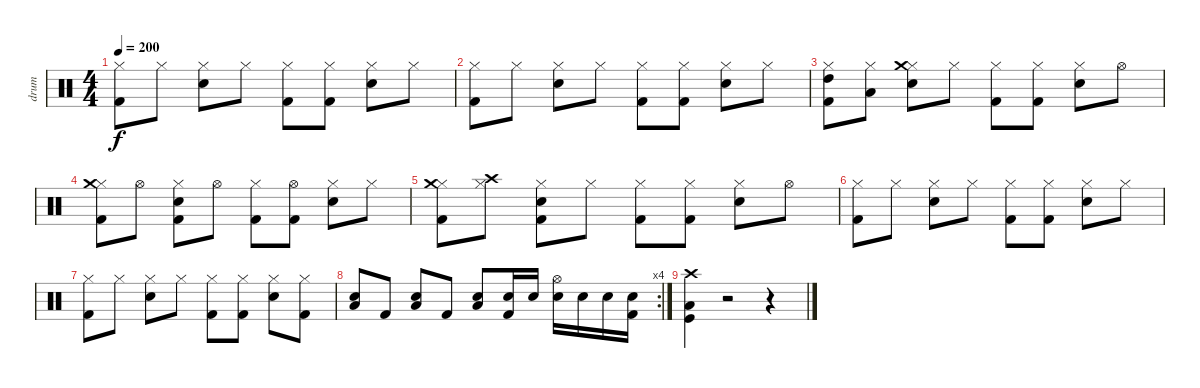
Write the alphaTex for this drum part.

\track ("drum" "drum") {instrument percussion}
\staff {score}
\articulation defaults
\ts (4 4)
\tempo 200
\clef neutral
\ks c
("Hi-Hat (closed)" "Kick (hit) 2").8{dy f} "Hi-Hat (closed)".8 ("Hi-Hat (closed)" "Electric Snare (hit)").8 "Hi-Hat (closed)".8 ("Hi-Hat (closed)" "Kick (hit) 2").8 ("Hi-Hat (closed)" "Kick (hit) 2").8 ("Hi-Hat (closed)" "Electric Snare (hit)").8 "Hi-Hat (closed)".8 |
("Hi-Hat (closed)" "Kick (hit) 2").8 "Hi-Hat (closed)".8 ("Hi-Hat (closed)" "Electric Snare (hit)").8 "Hi-Hat (closed)".8 ("Hi-Hat (closed)" "Kick (hit) 2").8 ("Hi-Hat (closed)" "Kick (hit) 2").8 ("Hi-Hat (closed)" "Electric Snare (hit)").8 "Hi-Hat (closed)".8 |
("Hi-Hat (closed)" "Kick (hit) 2" "High Tom (hit)").8 ("Hi-Hat (closed)" "Low Tom (hit)").8 ("Hi-Hat (closed)" "Electric Snare (hit)" "Crash medium (hit)").8 "Hi-Hat (closed)".8 ("Hi-Hat (closed)" "Kick (hit) 2").8 ("Hi-Hat (closed)" "Kick (hit) 2").8 ("Hi-Hat (closed)" "Electric Snare (hit)").8 "Hi-Hat (open)".8 |
("Hi-Hat (closed)" "Kick (hit) 2" "Crash medium (hit)").8 "Hi-Hat (open)".8 ("Hi-Hat (closed)" "Kick (hit) 2" "Electric Snare (hit)").8 "Hi-Hat (open)".8 ("Hi-Hat (closed)" "Kick (hit) 2").8 ("Hi-Hat (open)" "Kick (hit) 2").8 ("Hi-Hat (closed)" "Electric Snare (hit)").8 "Hi-Hat (closed)".8 |
("Hi-Hat (closed)" "Kick (hit) 2" "Crash medium (hit)").8 ("Hi-Hat (closed)" "Crash high (hit)").8 ("Hi-Hat (closed)" "Kick (hit) 2" "Electric Snare (hit)").8 "Hi-Hat (closed)".8 ("Hi-Hat (closed)" "Kick (hit) 2").8 ("Hi-Hat (closed)" "Kick (hit) 2").8 ("Hi-Hat (closed)" "Electric Snare (hit)").8 "Hi-Hat (open)".8 |
("Hi-Hat (closed)" "Kick (hit) 2").8 "Hi-Hat (closed)".8 ("Hi-Hat (closed)" "Electric Snare (hit)").8 "Hi-Hat (closed)".8 ("Hi-Hat (closed)" "Kick (hit) 2").8 ("Hi-Hat (closed)" "Kick (hit) 2").8 ("Hi-Hat (closed)" "Electric Snare (hit)").8 "Hi-Hat (closed)".8 |
("Hi-Hat (closed)" "Kick (hit) 2").8 "Hi-Hat (closed)".8 ("Hi-Hat (closed)" "Electric Snare (hit)").8 "Hi-Hat (closed)".8 ("Hi-Hat (closed)" "Kick (hit) 2").8 ("Hi-Hat (closed)" "Kick (hit) 2").8 ("Hi-Hat (closed)" "Electric Snare (hit)").8 ("Hi-Hat (closed)" "Kick (hit) 2").8 |
\rc 4
("Electric Snare (hit)" "Low Tom (hit)").8 "Kick (hit) 2".8 ("Electric Snare (hit)" "Low Tom (hit)").8 "Kick (hit) 2".8 ("Electric Snare (hit)" "Low Tom (hit)").8 ("Kick (hit) 2" "Electric Snare (hit)").16 "Electric Snare (hit)".16 ("Hi-Hat (open)" "Electric Snare (hit)").16 "Electric Snare (hit)".16 "Electric Snare (hit)".16 ("Kick (hit) 2" "Electric Snare (hit)").16 |
("Kick (hit)" "Low Floor Tom (hit)" "Crash high (hit)").4 r.2 r.4
